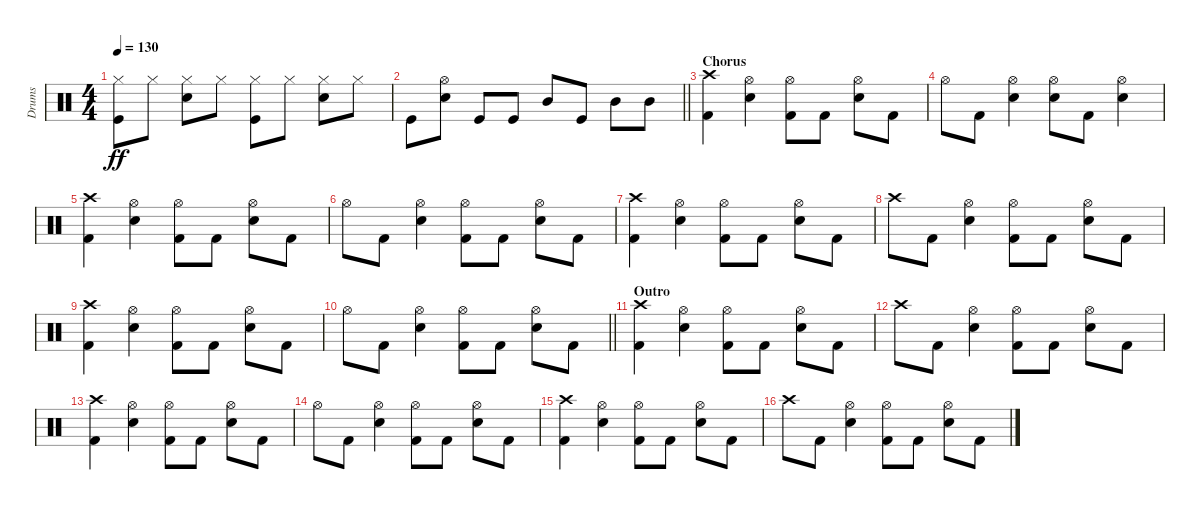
\track ("Drums" "Drums") {instrument percussion}
\staff {score}
\articulation defaults
\ts (4 4)
\tempo 130
\clef neutral
\ks c
("Hi-Hat (closed)" "Kick (hit)").8{dy ff} "Hi-Hat (closed)".8 ("Hi-Hat (closed)" "Snare (hit) 2").8 "Hi-Hat (closed)".8 ("Hi-Hat (closed)" "Kick (hit)").8 "Hi-Hat (closed)".8 ("Hi-Hat (closed)" "Snare (hit) 2").8 "Hi-Hat (closed)".8 |
\barLineRight lightlight "Kick (hit)".8
("Hi-Hat (open)" "Snare (hit) 2").8 "Kick (hit)".8 "Kick (hit)".8 "Mid Tom (hit)".8 "Kick (hit)".8 "Mid Tom (hit)".8 "Mid Tom (hit)".8 |
\section ("" "Chorus")
("Crash high (hit)" "Kick (hit) 2").4 ("Hi-Hat (open)" "Snare (hit) 2").4 ("Hi-Hat (open)" "Kick (hit) 2").8 "Kick (hit) 2".8 ("Hi-Hat (open)" "Snare (hit) 2").8 "Kick (hit) 2".8 |
"Hi-Hat (open)".8 "Kick (hit) 2".8 ("Hi-Hat (open)" "Snare (hit) 2").4 ("Hi-Hat (open)" "Snare (hit) 2").8 "Kick (hit) 2".8 ("Hi-Hat (open)" "Snare (hit) 2").4 |
("Crash high (hit)" "Kick (hit) 2").4 ("Hi-Hat (open)" "Snare (hit) 2").4 ("Hi-Hat (open)" "Kick (hit) 2").8 "Kick (hit) 2".8 ("Hi-Hat (open)" "Snare (hit) 2").8 "Kick (hit) 2".8 |
"Hi-Hat (open)".8 "Kick (hit) 2".8 ("Hi-Hat (open)" "Snare (hit) 2").4 ("Hi-Hat (open)" "Kick (hit) 2").8 "Kick (hit) 2".8 ("Hi-Hat (open)" "Snare (hit) 2").8 "Kick (hit) 2".8 |
("Crash high (hit)" "Kick (hit) 2").4 ("Hi-Hat (open)" "Snare (hit) 2").4 ("Hi-Hat (open)" "Kick (hit) 2").8 "Kick (hit) 2".8 ("Hi-Hat (open)" "Snare (hit) 2").8 "Kick (hit) 2".8 |
"Crash high (hit)".8 "Kick (hit) 2".8 ("Hi-Hat (open)" "Snare (hit) 2").4 ("Hi-Hat (open)" "Kick (hit) 2").8 "Kick (hit) 2".8 ("Hi-Hat (open)" "Snare (hit) 2").8 "Kick (hit) 2".8 |
("Crash high (hit)" "Kick (hit) 2").4 ("Hi-Hat (open)" "Snare (hit) 2").4 ("Hi-Hat (open)" "Kick (hit) 2").8 "Kick (hit) 2".8 ("Hi-Hat (open)" "Snare (hit) 2").8 "Kick (hit) 2".8 |
\barLineRight lightlight "Hi-Hat (open)".8 "Kick (hit) 2".8
("Hi-Hat (open)" "Snare (hit) 2").4 ("Hi-Hat (open)" "Kick (hit) 2").8 "Kick (hit) 2".8 ("Hi-Hat (open)" "Snare (hit) 2").8 "Kick (hit) 2".8 |
\section ("" "Outro")
("Crash high (hit)" "Kick (hit) 2").4 ("Hi-Hat (open)" "Snare (hit) 2").4 ("Hi-Hat (open)" "Kick (hit) 2").8 "Kick (hit) 2".8 ("Hi-Hat (open)" "Snare (hit) 2").8 "Kick (hit) 2".8 |
"Crash high (hit)".8 "Kick (hit) 2".8 ("Hi-Hat (open)" "Snare (hit) 2").4 ("Hi-Hat (open)" "Kick (hit) 2").8 "Kick (hit) 2".8 ("Hi-Hat (open)" "Snare (hit) 2").8 "Kick (hit) 2".8 |
("Crash high (hit)" "Kick (hit) 2").4 ("Hi-Hat (open)" "Snare (hit) 2").4 ("Hi-Hat (open)" "Kick (hit) 2").8 "Kick (hit) 2".8 ("Hi-Hat (open)" "Snare (hit) 2").8 "Kick (hit) 2".8 |
"Hi-Hat (open)".8 "Kick (hit) 2".8 ("Hi-Hat (open)" "Snare (hit) 2").4 ("Hi-Hat (open)" "Kick (hit) 2").8 "Kick (hit) 2".8 ("Hi-Hat (open)" "Snare (hit) 2").8 "Kick (hit) 2".8 |
("Crash high (hit)" "Kick (hit) 2").4 ("Hi-Hat (open)" "Snare (hit) 2").4 ("Hi-Hat (open)" "Kick (hit) 2").8 "Kick (hit) 2".8 ("Hi-Hat (open)" "Snare (hit) 2").8 "Kick (hit) 2".8 |
"Crash high (hit)".8 "Kick (hit) 2".8 ("Hi-Hat (open)" "Snare (hit) 2").4 ("Hi-Hat (open)" "Kick (hit) 2").8 "Kick (hit) 2".8 ("Hi-Hat (open)" "Snare (hit) 2").8 "Kick (hit) 2".8
